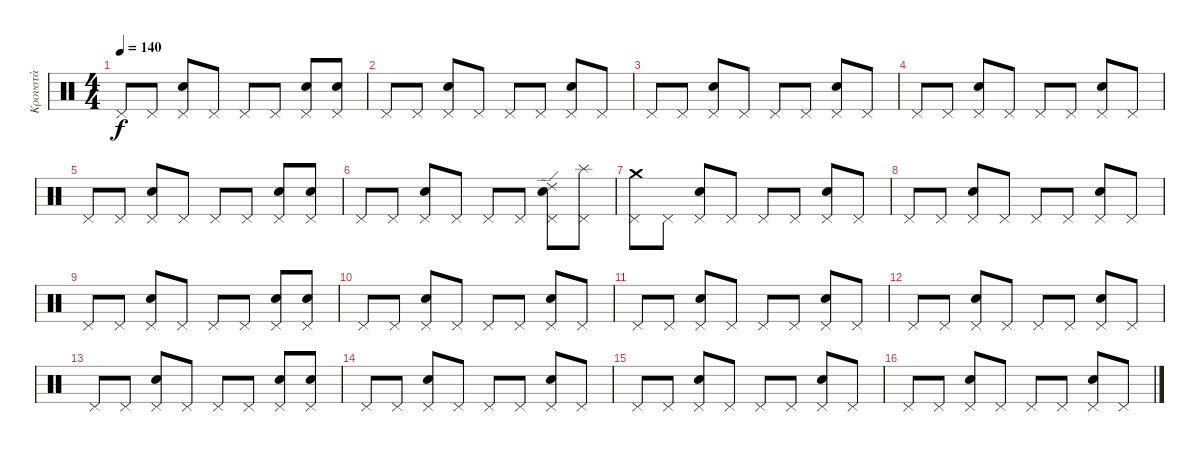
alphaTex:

\track ("Κρουστά" "Κρουστά") {instrument percussion}
\staff {score}
\articulation defaults
\ts (4 4)
\tempo 140
\clef neutral
\ks c "Pedal Hi-Hat (hit)".8{dy f} "Pedal Hi-Hat (hit)".8
("Pedal Hi-Hat (hit)" "Snare (hit) 2").8 "Pedal Hi-Hat (hit)".8 "Pedal Hi-Hat (hit)".8 "Pedal Hi-Hat (hit)".8 ("Pedal Hi-Hat (hit)" "Snare (hit) 2").8 ("Pedal Hi-Hat (hit)" "Snare (hit) 2").8 |
"Pedal Hi-Hat (hit)".8 "Pedal Hi-Hat (hit)".8 ("Pedal Hi-Hat (hit)" "Snare (hit) 2").8 "Pedal Hi-Hat (hit)".8 "Pedal Hi-Hat (hit)".8 "Pedal Hi-Hat (hit)".8 ("Pedal Hi-Hat (hit)" "Snare (hit) 2").8 "Pedal Hi-Hat (hit)".8 |
"Pedal Hi-Hat (hit)".8 "Pedal Hi-Hat (hit)".8 ("Pedal Hi-Hat (hit)" "Snare (hit) 2").8 "Pedal Hi-Hat (hit)".8 "Pedal Hi-Hat (hit)".8 "Pedal Hi-Hat (hit)".8 ("Pedal Hi-Hat (hit)" "Snare (hit) 2").8 "Pedal Hi-Hat (hit)".8 |
"Pedal Hi-Hat (hit)".8 "Pedal Hi-Hat (hit)".8 ("Pedal Hi-Hat (hit)" "Snare (hit) 2").8 "Pedal Hi-Hat (hit)".8 "Pedal Hi-Hat (hit)".8 "Pedal Hi-Hat (hit)".8 ("Pedal Hi-Hat (hit)" "Snare (hit) 2").8 "Pedal Hi-Hat (hit)".8 |
"Pedal Hi-Hat (hit)".8 "Pedal Hi-Hat (hit)".8 ("Pedal Hi-Hat (hit)" "Snare (hit) 2").8 "Pedal Hi-Hat (hit)".8 "Pedal Hi-Hat (hit)".8 "Pedal Hi-Hat (hit)".8 ("Pedal Hi-Hat (hit)" "Snare (hit) 2").8 ("Pedal Hi-Hat (hit)" "Snare (hit) 2").8 |
"Pedal Hi-Hat (hit)".8 "Pedal Hi-Hat (hit)".8 ("Pedal Hi-Hat (hit)" "Snare (hit) 2").8 "Pedal Hi-Hat (hit)".8 "Pedal Hi-Hat (hit)".8 "Pedal Hi-Hat (hit)".8 ("Pedal Hi-Hat (hit)" "Snare (hit) 2" "Ride (edge) 2").8 ("Pedal Hi-Hat (hit)" "Splash (hit)").8 |
("Pedal Hi-Hat (hit)" "Crash medium (hit)").8 "Pedal Hi-Hat (hit)".8 ("Pedal Hi-Hat (hit)" "Snare (hit) 2").8 "Pedal Hi-Hat (hit)".8 "Pedal Hi-Hat (hit)".8 "Pedal Hi-Hat (hit)".8 ("Pedal Hi-Hat (hit)" "Snare (hit) 2").8 "Pedal Hi-Hat (hit)".8 |
"Pedal Hi-Hat (hit)".8 "Pedal Hi-Hat (hit)".8 ("Pedal Hi-Hat (hit)" "Snare (hit) 2").8 "Pedal Hi-Hat (hit)".8 "Pedal Hi-Hat (hit)".8 "Pedal Hi-Hat (hit)".8 ("Pedal Hi-Hat (hit)" "Snare (hit) 2").8 "Pedal Hi-Hat (hit)".8 |
"Pedal Hi-Hat (hit)".8 "Pedal Hi-Hat (hit)".8 ("Pedal Hi-Hat (hit)" "Snare (hit) 2").8 "Pedal Hi-Hat (hit)".8 "Pedal Hi-Hat (hit)".8 "Pedal Hi-Hat (hit)".8 ("Pedal Hi-Hat (hit)" "Snare (hit) 2").8 ("Pedal Hi-Hat (hit)" "Snare (hit) 2").8 |
"Pedal Hi-Hat (hit)".8 "Pedal Hi-Hat (hit)".8 ("Pedal Hi-Hat (hit)" "Snare (hit) 2").8 "Pedal Hi-Hat (hit)".8 "Pedal Hi-Hat (hit)".8 "Pedal Hi-Hat (hit)".8 ("Pedal Hi-Hat (hit)" "Snare (hit) 2").8 "Pedal Hi-Hat (hit)".8 |
"Pedal Hi-Hat (hit)".8 "Pedal Hi-Hat (hit)".8 ("Pedal Hi-Hat (hit)" "Snare (hit) 2").8 "Pedal Hi-Hat (hit)".8 "Pedal Hi-Hat (hit)".8 "Pedal Hi-Hat (hit)".8 ("Pedal Hi-Hat (hit)" "Snare (hit) 2").8 "Pedal Hi-Hat (hit)".8 |
"Pedal Hi-Hat (hit)".8 "Pedal Hi-Hat (hit)".8 ("Pedal Hi-Hat (hit)" "Snare (hit) 2").8 "Pedal Hi-Hat (hit)".8 "Pedal Hi-Hat (hit)".8 "Pedal Hi-Hat (hit)".8 ("Pedal Hi-Hat (hit)" "Snare (hit) 2").8 "Pedal Hi-Hat (hit)".8 |
"Pedal Hi-Hat (hit)".8 "Pedal Hi-Hat (hit)".8 ("Pedal Hi-Hat (hit)" "Snare (hit) 2").8 "Pedal Hi-Hat (hit)".8 "Pedal Hi-Hat (hit)".8 "Pedal Hi-Hat (hit)".8 ("Pedal Hi-Hat (hit)" "Snare (hit) 2").8 ("Pedal Hi-Hat (hit)" "Snare (hit) 2").8 |
"Pedal Hi-Hat (hit)".8 "Pedal Hi-Hat (hit)".8 ("Pedal Hi-Hat (hit)" "Snare (hit) 2").8 "Pedal Hi-Hat (hit)".8 "Pedal Hi-Hat (hit)".8 "Pedal Hi-Hat (hit)".8 ("Pedal Hi-Hat (hit)" "Snare (hit) 2").8 "Pedal Hi-Hat (hit)".8 |
"Pedal Hi-Hat (hit)".8 "Pedal Hi-Hat (hit)".8 ("Pedal Hi-Hat (hit)" "Snare (hit) 2").8 "Pedal Hi-Hat (hit)".8 "Pedal Hi-Hat (hit)".8 "Pedal Hi-Hat (hit)".8 ("Pedal Hi-Hat (hit)" "Snare (hit) 2").8 "Pedal Hi-Hat (hit)".8 |
"Pedal Hi-Hat (hit)".8 "Pedal Hi-Hat (hit)".8 ("Pedal Hi-Hat (hit)" "Snare (hit) 2").8 "Pedal Hi-Hat (hit)".8 "Pedal Hi-Hat (hit)".8 "Pedal Hi-Hat (hit)".8 ("Pedal Hi-Hat (hit)" "Snare (hit) 2").8 "Pedal Hi-Hat (hit)".8
